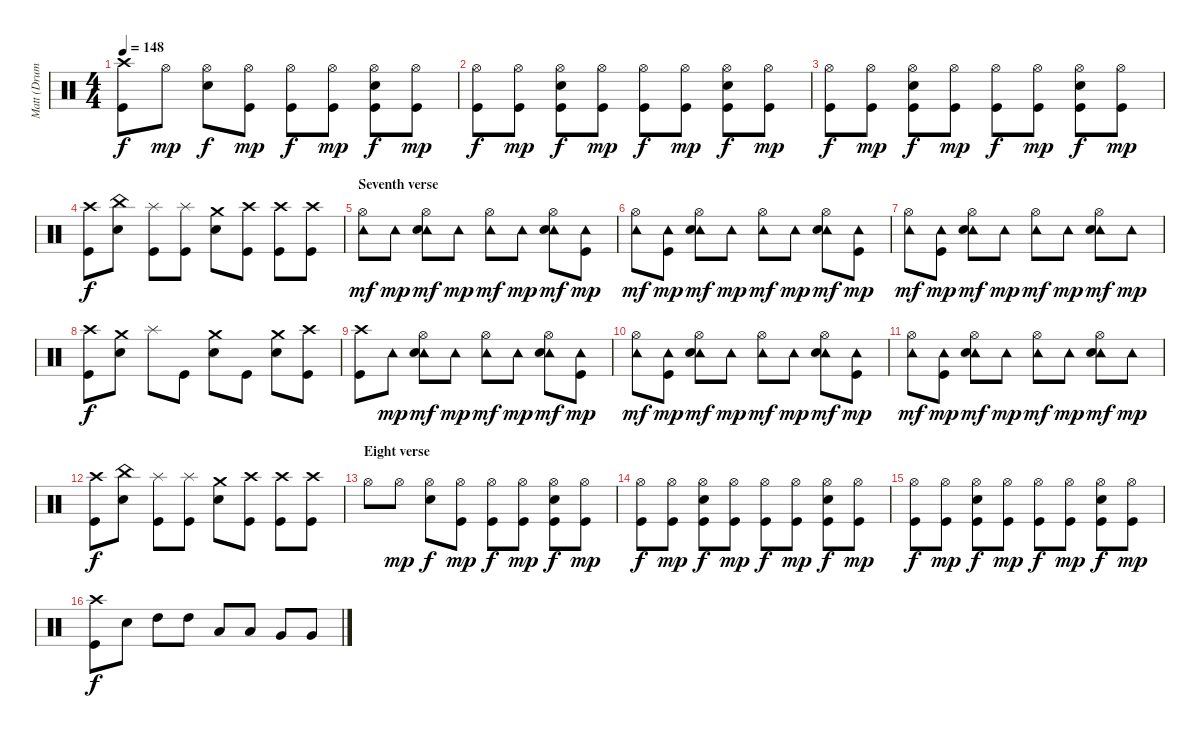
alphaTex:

\track ("Matt (Drums)" "Matt (Drum") {instrument percussion}
\staff {score}
\articulation defaults
\ts (4 4)
\tempo 148
\clef neutral
\ks c
("Crash high (hit)" "Kick (hit)").8{dy f} "Hi-Hat (open)".8{dy mp} ("Hi-Hat (open)" "Electric Snare (hit)").8{dy f} ("Hi-Hat (open)" "Kick (hit)").8{dy mp} ("Hi-Hat (open)" "Kick (hit)").8{dy f} ("Hi-Hat (open)" "Kick (hit)").8{dy mp} ("Hi-Hat (open)" "Electric Snare (hit)" "Kick (hit)").8{dy f} ("Hi-Hat (open)" "Kick (hit)").8{dy mp} |
("Hi-Hat (open)" "Kick (hit)").8{dy f} ("Hi-Hat (open)" "Kick (hit)").8{dy mp} ("Hi-Hat (open)" "Electric Snare (hit)" "Kick (hit)").8{dy f} ("Hi-Hat (open)" "Kick (hit)").8{dy mp} ("Hi-Hat (open)" "Kick (hit)").8{dy f} ("Hi-Hat (open)" "Kick (hit)").8{dy mp} ("Hi-Hat (open)" "Electric Snare (hit)" "Kick (hit)").8{dy f} ("Hi-Hat (open)" "Kick (hit)").8{dy mp} |
("Hi-Hat (open)" "Kick (hit)").8{dy f} ("Hi-Hat (open)" "Kick (hit)").8{dy mp} ("Hi-Hat (open)" "Electric Snare (hit)" "Kick (hit)").8{dy f} ("Hi-Hat (open)" "Kick (hit)").8{dy mp} ("Hi-Hat (open)" "Kick (hit)").8{dy f} ("Hi-Hat (open)" "Kick (hit)").8{dy mp} ("Hi-Hat (open)" "Electric Snare (hit)" "Kick (hit)").8{dy f} ("Hi-Hat (open)" "Kick (hit)").8{dy mp} |
("Crash high (hit)" "Kick (hit)").8{dy f} ("China (hit)" "Electric Snare (hit)").8 ("Splash (hit)" "Kick (hit)").8 ("Splash (hit)" "Kick (hit)").8 ("Crash medium (hit)" "Electric Snare (hit)").8 ("Crash high (hit)" "Kick (hit)").8 ("Crash high (hit)" "Kick (hit)").8 ("Crash high (hit)" "Kick (hit)").8 |
\section ("" "Seventh verse")
("Hi-Hat (open)" "Tambourine (hit)").8{dy mf} "Tambourine (hit)".8{dy mp} ("Hi-Hat (open)" "Tambourine (hit)" "Electric Snare (hit)").8{dy mf} "Tambourine (hit)".8{dy mp} ("Hi-Hat (open)" "Tambourine (hit)").8{dy mf} "Tambourine (hit)".8{dy mp} ("Hi-Hat (open)" "Tambourine (hit)" "Electric Snare (hit)").8{dy mf} ("Tambourine (hit)" "Kick (hit)").8{dy mp} |
("Hi-Hat (open)" "Tambourine (hit)").8{dy mf} ("Tambourine (hit)" "Kick (hit)").8{dy mp} ("Hi-Hat (open)" "Tambourine (hit)" "Electric Snare (hit)").8{dy mf} "Tambourine (hit)".8{dy mp} ("Hi-Hat (open)" "Tambourine (hit)").8{dy mf} "Tambourine (hit)".8{dy mp} ("Hi-Hat (open)" "Tambourine (hit)" "Electric Snare (hit)").8{dy mf} ("Tambourine (hit)" "Kick (hit)").8{dy mp} |
("Hi-Hat (open)" "Tambourine (hit)").8{dy mf} ("Tambourine (hit)" "Kick (hit)").8{dy mp} ("Hi-Hat (open)" "Tambourine (hit)" "Electric Snare (hit)").8{dy mf} "Tambourine (hit)".8{dy mp} ("Hi-Hat (open)" "Tambourine (hit)").8{dy mf} "Tambourine (hit)".8{dy mp} ("Hi-Hat (open)" "Tambourine (hit)" "Electric Snare (hit)").8{dy mf} "Tambourine (hit)".8{dy mp} |
("Crash high (hit)" "Kick (hit)").8{dy f} ("Crash medium (hit)" "Electric Snare (hit)").8 "Splash (hit)".8 "Kick (hit)".8 ("Crash medium (hit)" "Electric Snare (hit)").8 "Kick (hit)".8 ("Crash medium (hit)" "Electric Snare (hit)").8 ("Crash high (hit)" "Kick (hit)").8 |
("Crash high (hit)" "Kick (hit)").8 "Tambourine (hit)".8{dy mp} ("Hi-Hat (open)" "Tambourine (hit)" "Electric Snare (hit)").8{dy mf} "Tambourine (hit)".8{dy mp} ("Hi-Hat (open)" "Tambourine (hit)").8{dy mf} "Tambourine (hit)".8{dy mp} ("Hi-Hat (open)" "Tambourine (hit)" "Electric Snare (hit)").8{dy mf} ("Tambourine (hit)" "Kick (hit)").8{dy mp} |
("Hi-Hat (open)" "Tambourine (hit)").8{dy mf} ("Tambourine (hit)" "Kick (hit)").8{dy mp} ("Hi-Hat (open)" "Tambourine (hit)" "Electric Snare (hit)").8{dy mf} "Tambourine (hit)".8{dy mp} ("Hi-Hat (open)" "Tambourine (hit)").8{dy mf} "Tambourine (hit)".8{dy mp} ("Hi-Hat (open)" "Tambourine (hit)" "Electric Snare (hit)").8{dy mf} ("Tambourine (hit)" "Kick (hit)").8{dy mp} |
("Hi-Hat (open)" "Tambourine (hit)").8{dy mf} ("Tambourine (hit)" "Kick (hit)").8{dy mp} ("Hi-Hat (open)" "Tambourine (hit)" "Electric Snare (hit)").8{dy mf} "Tambourine (hit)".8{dy mp} ("Hi-Hat (open)" "Tambourine (hit)").8{dy mf} "Tambourine (hit)".8{dy mp} ("Hi-Hat (open)" "Tambourine (hit)" "Electric Snare (hit)").8{dy mf} "Tambourine (hit)".8{dy mp} |
("Crash high (hit)" "Kick (hit)").8{dy f} ("China (hit)" "Electric Snare (hit)").8 ("Splash (hit)" "Kick (hit)").8 ("Splash (hit)" "Kick (hit)").8 ("Crash medium (hit)" "Electric Snare (hit)").8 ("Crash high (hit)" "Kick (hit)").8 ("Crash high (hit)" "Kick (hit)").8 ("Crash high (hit)" "Kick (hit)").8 |
\section ("" "Eight verse")
"Hi-Hat (open)".8 "Hi-Hat (open)".8{dy mp} ("Hi-Hat (open)" "Electric Snare (hit)").8{dy f} ("Hi-Hat (open)" "Kick (hit)").8{dy mp} ("Hi-Hat (open)" "Kick (hit)").8{dy f} ("Hi-Hat (open)" "Kick (hit)").8{dy mp} ("Hi-Hat (open)" "Electric Snare (hit)" "Kick (hit)").8{dy f} ("Hi-Hat (open)" "Kick (hit)").8{dy mp} |
("Hi-Hat (open)" "Kick (hit)").8{dy f} ("Hi-Hat (open)" "Kick (hit)").8{dy mp} ("Hi-Hat (open)" "Electric Snare (hit)" "Kick (hit)").8{dy f} ("Hi-Hat (open)" "Kick (hit)").8{dy mp} ("Hi-Hat (open)" "Kick (hit)").8{dy f} ("Hi-Hat (open)" "Kick (hit)").8{dy mp} ("Hi-Hat (open)" "Electric Snare (hit)" "Kick (hit)").8{dy f} ("Hi-Hat (open)" "Kick (hit)").8{dy mp} |
("Hi-Hat (open)" "Kick (hit)").8{dy f} ("Hi-Hat (open)" "Kick (hit)").8{dy mp} ("Hi-Hat (open)" "Electric Snare (hit)" "Kick (hit)").8{dy f} ("Hi-Hat (open)" "Kick (hit)").8{dy mp} ("Hi-Hat (open)" "Kick (hit)").8{dy f} ("Hi-Hat (open)" "Kick (hit)").8{dy mp} ("Hi-Hat (open)" "Electric Snare (hit)" "Kick (hit)").8{dy f} ("Hi-Hat (open)" "Kick (hit)").8{dy mp} |
("Crash high (hit)" "Kick (hit)").8{dy f} "Electric Snare (hit)".8 "High Tom (hit)".8 "High Tom (hit)".8 "Low Tom (hit)".8 "Low Tom (hit)".8 "Very Low Tom (hit)".8 "Very Low Tom (hit)".8
